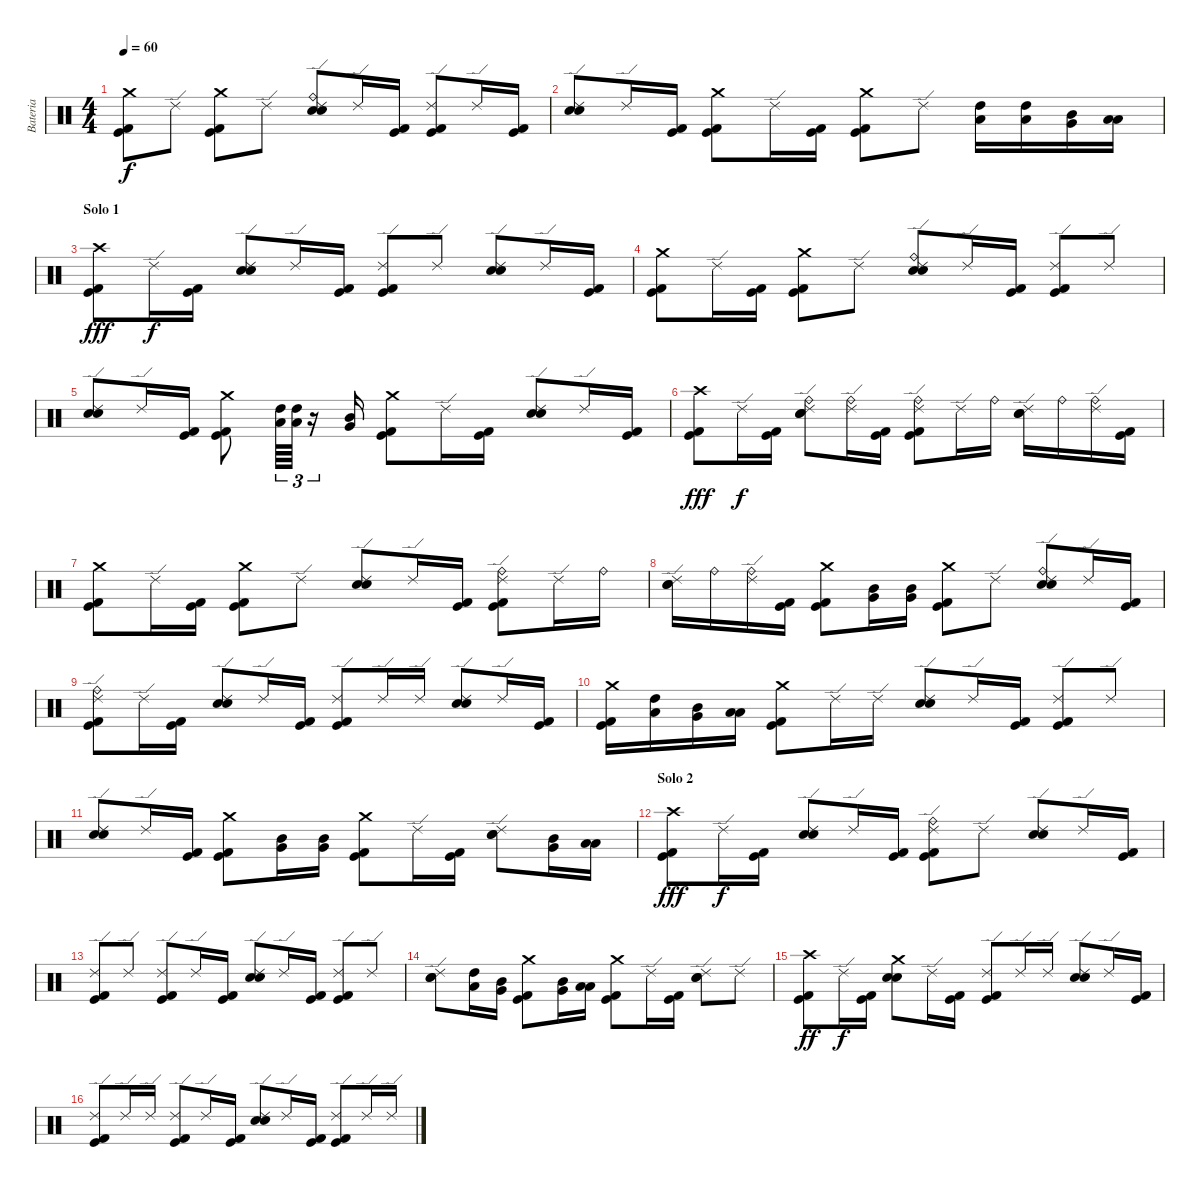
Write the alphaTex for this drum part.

\track ("Bateria" "Bateria") {instrument percussion}
\staff {score}
\articulation defaults
\ts (4 4)
\tempo 60
\clef neutral
\ks c
("Crash medium (hit)" "Kick (hit) 2" "Kick (hit)").8{dy f} "Ride (edge) 2".8 ("Crash medium (hit)" "Kick (hit) 2" "Kick (hit)").8 "Ride (edge) 2".8 ("Ride (bell)" "Ride (edge) 2" "Electric Snare (hit)" "Snare (hit) 2").8 "Ride (edge) 2".16 ("Kick (hit) 2" "Kick (hit)").16 ("Ride (edge) 2" "Kick (hit) 2" "Kick (hit)").8 "Ride (edge) 2".16 ("Kick (hit) 2" "Kick (hit)").16 |
("Ride (edge) 2" "Electric Snare (hit)" "Snare (hit) 2").8 "Ride (edge) 2".16 ("Kick (hit) 2" "Kick (hit)").16 ("Crash medium (hit)" "Kick (hit) 2" "Kick (hit)").8 "Ride (edge) 2".16 ("Kick (hit) 2" "Kick (hit)").16 ("Crash medium (hit)" "Kick (hit) 2" "Kick (hit)").8 "Ride (edge) 2".8 ("High Tom (hit)" "Low Tom (hit)").16 ("High Tom (hit)" "Low Tom (hit)").16 ("Mid Tom (hit)" "Very Low Tom (hit)").16 ("Low Tom (hit)" "Low Floor Tom (hit)").16 |
\section ("" "Solo 1")
("Crash high (hit)" "Kick (hit) 2" "Kick (hit)").8{dy fff} "Ride (edge) 2".16{dy f} ("Kick (hit) 2" "Kick (hit)").16 ("Ride (edge) 2" "Electric Snare (hit)" "Snare (hit) 2").8 "Ride (edge) 2".16 ("Kick (hit) 2" "Kick (hit)").16 ("Ride (edge) 2" "Kick (hit) 2" "Kick (hit)").8 "Ride (edge) 2".8 ("Ride (edge) 2" "Electric Snare (hit)" "Snare (hit) 2").8 "Ride (edge) 2".16 ("Kick (hit) 2" "Kick (hit)").16 |
("Crash medium (hit)" "Kick (hit) 2" "Kick (hit)").8 "Ride (edge) 2".16 ("Kick (hit) 2" "Kick (hit)").16 ("Crash medium (hit)" "Kick (hit) 2" "Kick (hit)").8 "Ride (edge) 2".8 ("Ride (bell)" "Ride (edge) 2" "Electric Snare (hit)" "Snare (hit) 2").8 "Ride (edge) 2".16 ("Kick (hit) 2" "Kick (hit)").16 ("Ride (edge) 2" "Kick (hit) 2" "Kick (hit)").8 "Ride (edge) 2".8 |
("Ride (edge) 2" "Electric Snare (hit)" "Snare (hit) 2").8 "Ride (edge) 2".16 ("Kick (hit) 2" "Kick (hit)").16 ("Crash medium (hit)" "Kick (hit) 2" "Kick (hit)").8 ("High Tom (hit)" "Low Tom (hit)").64{tu (3 2)} ("High Tom (hit)" "Low Tom (hit)").64{tu (3 2)} r.16{tu (3 2)} ("Mid Tom (hit)" "Very Low Tom (hit)").16 ("Crash medium (hit)" "Kick (hit) 2" "Kick (hit)").8 "Ride (edge) 2".16 ("Kick (hit) 2" "Kick (hit)").16 ("Ride (edge) 2" "Electric Snare (hit)" "Snare (hit) 2").8 "Ride (edge) 2".16 ("Kick (hit) 2" "Kick (hit)").16 |
("Crash high (hit)" "Kick (hit) 2" "Kick (hit)").8{dy fff} "Ride (edge) 2".16{dy f} ("Kick (hit) 2" "Kick (hit)").16 ("Ride (bell)" "Ride (edge) 2" "Electric Snare (hit)" "Snare (hit) 2").8 ("Ride (bell)" "Ride (edge) 2").16 ("Kick (hit) 2" "Kick (hit)").16 ("Ride (bell)" "Ride (edge) 2" "Kick (hit) 2" "Kick (hit)").8 "Ride (edge) 2".16 "Ride (bell)".16 ("Ride (edge) 2" "Electric Snare (hit)" "Snare (hit) 2").16 "Ride (bell)".16 ("Ride (bell)" "Ride (edge) 2").16 ("Kick (hit) 2" "Kick (hit)").16 |
("Crash medium (hit)" "Kick (hit) 2" "Kick (hit)").8 "Ride (edge) 2".16 ("Kick (hit) 2" "Kick (hit)").16 ("Crash medium (hit)" "Kick (hit) 2" "Kick (hit)").8 "Ride (edge) 2".8 ("Ride (edge) 2" "Electric Snare (hit)" "Snare (hit) 2").8 "Ride (edge) 2".16 ("Kick (hit) 2" "Kick (hit)").16 ("Ride (bell)" "Ride (edge) 2" "Kick (hit) 2" "Kick (hit)").8 "Ride (edge) 2".16 "Ride (bell)".16 |
("Ride (edge) 2" "Electric Snare (hit)" "Snare (hit) 2").16 "Ride (bell)".16 ("Ride (bell)" "Ride (edge) 2").16 ("Kick (hit) 2" "Kick (hit)").16 ("Crash medium (hit)" "Kick (hit) 2" "Kick (hit)").8 ("Mid Tom (hit)" "Very Low Tom (hit)").16 ("Mid Tom (hit)" "Very Low Tom (hit)").16 ("Crash medium (hit)" "Kick (hit) 2" "Kick (hit)").8 "Ride (edge) 2".8 ("Ride (bell)" "Ride (edge) 2" "Electric Snare (hit)" "Snare (hit) 2").8 "Ride (edge) 2".16 ("Kick (hit) 2" "Kick (hit)").16 |
("Ride (bell)" "Ride (edge) 2" "Kick (hit) 2" "Kick (hit)").8 "Ride (edge) 2".16 ("Kick (hit) 2" "Kick (hit)").16 ("Ride (edge) 2" "Electric Snare (hit)" "Snare (hit) 2").8 "Ride (edge) 2".16 ("Kick (hit) 2" "Kick (hit)").16 ("Ride (edge) 2" "Kick (hit) 2" "Kick (hit)").8 "Ride (edge) 2".16 "Ride (edge) 2".16 ("Ride (edge) 2" "Electric Snare (hit)" "Snare (hit) 2").8 "Ride (edge) 2".16 ("Kick (hit) 2" "Kick (hit)").16 |
("Crash medium (hit)" "Kick (hit) 2" "Kick (hit)").16 ("High Tom (hit)" "Low Tom (hit)").16 ("Mid Tom (hit)" "Very Low Tom (hit)").16 ("Low Tom (hit)" "Low Floor Tom (hit)").16 ("Crash medium (hit)" "Kick (hit) 2" "Kick (hit)").8 "Ride (edge) 2".16 "Ride (edge) 2".16 ("Ride (edge) 2" "Electric Snare (hit)" "Snare (hit) 2").8 "Ride (edge) 2".16 ("Kick (hit) 2" "Kick (hit)").16 ("Ride (edge) 2" "Kick (hit) 2" "Kick (hit)").8 "Ride (edge) 2".8 |
("Ride (edge) 2" "Electric Snare (hit)" "Snare (hit) 2").8 "Ride (edge) 2".16 ("Kick (hit) 2" "Kick (hit)").16 ("Crash medium (hit)" "Kick (hit) 2" "Kick (hit)").8 ("Mid Tom (hit)" "Very Low Tom (hit)").16 ("Mid Tom (hit)" "Very Low Tom (hit)").16 ("Crash medium (hit)" "Kick (hit) 2" "Kick (hit)").8 "Ride (edge) 2".16 ("Kick (hit) 2" "Kick (hit)").16 ("Ride (edge) 2" "Electric Snare (hit)" "Snare (hit) 2").8 ("Mid Tom (hit)" "Very Low Tom (hit)").16 ("Low Tom (hit)" "Low Floor Tom (hit)").16 |
\section ("" "Solo 2")
("Crash high (hit)" "Kick (hit) 2" "Kick (hit)").8{dy fff} "Ride (edge) 2".16{dy f} ("Kick (hit) 2" "Kick (hit)").16 ("Ride (edge) 2" "Electric Snare (hit)" "Snare (hit) 2").8 "Ride (edge) 2".16 ("Kick (hit) 2" "Kick (hit)").16 ("Ride (bell)" "Ride (edge) 2" "Kick (hit) 2" "Kick (hit)").8 "Ride (edge) 2".8 ("Ride (edge) 2" "Electric Snare (hit)" "Snare (hit) 2").8 "Ride (edge) 2".16 ("Kick (hit) 2" "Kick (hit)").16 |
("Ride (edge) 2" "Kick (hit) 2" "Kick (hit)").8 "Ride (edge) 2".8 ("Ride (edge) 2" "Kick (hit) 2" "Kick (hit)").8 "Ride (edge) 2".16 ("Kick (hit) 2" "Kick (hit)").16 ("Ride (edge) 2" "Electric Snare (hit)" "Snare (hit) 2").8 "Ride (edge) 2".16 ("Kick (hit) 2" "Kick (hit)").16 ("Ride (edge) 2" "Kick (hit) 2" "Kick (hit)").8 "Ride (edge) 2".8 |
("Ride (edge) 2" "Electric Snare (hit)" "Snare (hit) 2").8 ("High Tom (hit)" "Low Tom (hit)").16 ("Mid Tom (hit)" "Very Low Tom (hit)").16 ("Crash medium (hit)" "Kick (hit) 2" "Kick (hit)").8 ("Mid Tom (hit)" "Very Low Tom (hit)").16 ("Low Tom (hit)" "Low Floor Tom (hit)").16 ("Crash medium (hit)" "Kick (hit) 2" "Kick (hit)").8 "Ride (edge) 2".16 ("Kick (hit) 2" "Kick (hit)").16 ("Ride (edge) 2" "Electric Snare (hit)" "Snare (hit) 2").8 "Ride (edge) 2".8 |
("Crash high (hit)" "Kick (hit) 2" "Kick (hit)").8{dy ff} "Ride (edge) 2".16{dy f} ("Kick (hit) 2" "Kick (hit)").16 ("Crash medium (hit)" "Electric Snare (hit)" "Snare (hit) 2").8 "Ride (edge) 2".16 ("Kick (hit) 2" "Kick (hit)").16 ("Ride (edge) 2" "Kick (hit) 2" "Kick (hit)").8 "Ride (edge) 2".16 "Ride (edge) 2".16 ("Ride (edge) 2" "Electric Snare (hit)" "Snare (hit) 2").8 "Ride (edge) 2".16 ("Kick (hit) 2" "Kick (hit)").16 |
("Ride (edge) 2" "Kick (hit) 2" "Kick (hit)").8 "Ride (edge) 2".16 "Ride (edge) 2".16 ("Ride (edge) 2" "Kick (hit) 2" "Kick (hit)").8 "Ride (edge) 2".16 ("Kick (hit) 2" "Kick (hit)").16 ("Ride (edge) 2" "Electric Snare (hit)" "Snare (hit) 2").8 "Ride (edge) 2".16 ("Kick (hit) 2" "Kick (hit)").16 ("Ride (edge) 2" "Kick (hit) 2" "Kick (hit)").8 "Ride (edge) 2".16 "Ride (edge) 2".16
